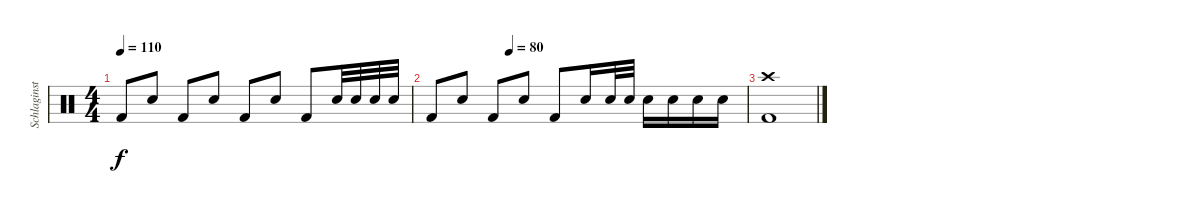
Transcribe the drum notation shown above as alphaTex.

\track ("Schlaginstrumente - Auswahl" "Schlaginst") {instrument percussion}
\staff {score}
\articulation defaults
\ts (4 4)
\tempo 110
\clef neutral
\ks c "Kick (hit) 2".8{dy f} "Electric Snare (hit)".8 "Kick (hit) 2".8 "Electric Snare (hit)".8 "Kick (hit) 2".8 "Electric Snare (hit)".8 "Kick (hit) 2".8 "Electric Snare (hit)".32 "Electric Snare (hit)".32 "Electric Snare (hit)".32 "Electric Snare (hit)".32
|
\tempo (80 0.25)
"Kick (hit) 2".8 "Electric Snare (hit)".8 "Kick (hit) 2".8 "Electric Snare (hit)".8 "Kick (hit) 2".8 "Electric Snare (hit)".16 "Electric Snare (hit)".32 "Electric Snare (hit)".32 "Electric Snare (hit)".16 "Electric Snare (hit)".16 "Electric Snare (hit)".16 "Electric Snare (hit)".16 |
("Crash high (hit)" "Kick (hit) 2").1
